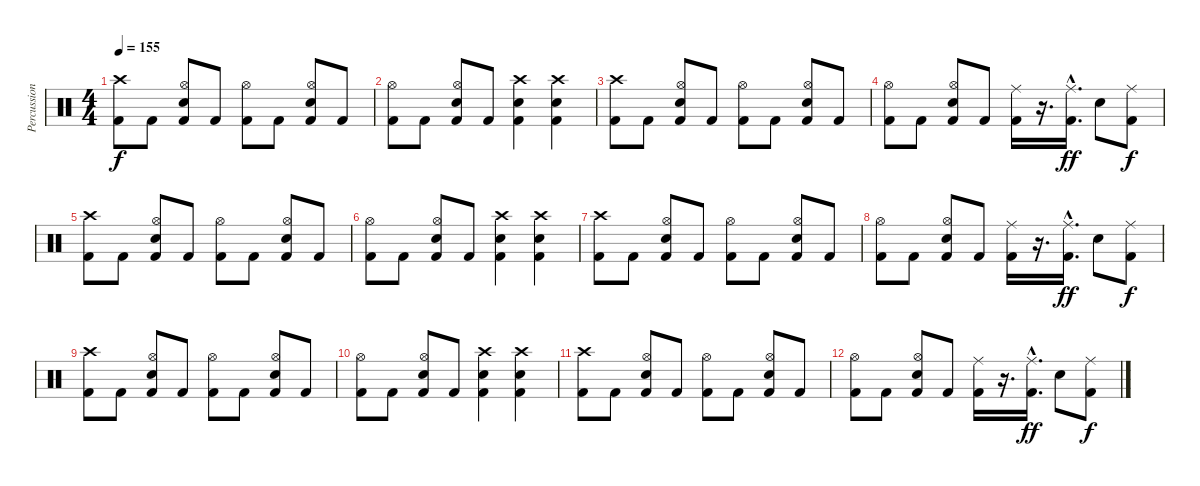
\track ("Percussion" "Percussion") {instrument percussion}
\staff {score}
\articulation defaults
\ts (4 4)
\tempo 155
\clef neutral
\ks c
("Crash high (hit)" "Kick (hit) 2").8{dy f} "Kick (hit) 2".8 ("Hi-Hat (open)" "Snare (hit) 2" "Kick (hit) 2").8 "Kick (hit) 2".8 ("Hi-Hat (open)" "Kick (hit) 2").8 "Kick (hit) 2".8 ("Hi-Hat (open)" "Snare (hit) 2" "Kick (hit) 2").8 "Kick (hit) 2".8 |
("Hi-Hat (open)" "Kick (hit) 2").8 "Kick (hit) 2".8 ("Hi-Hat (open)" "Snare (hit) 2" "Kick (hit) 2").8 "Kick (hit) 2".8 ("Crash high (hit)" "Snare (hit) 2" "Kick (hit) 2").4 ("Crash high (hit)" "Snare (hit) 2" "Kick (hit) 2").4 |
("Crash high (hit)" "Kick (hit) 2").8 "Kick (hit) 2".8 ("Hi-Hat (open)" "Snare (hit) 2" "Kick (hit) 2").8 "Kick (hit) 2".8 ("Hi-Hat (open)" "Kick (hit) 2").8 "Kick (hit) 2".8 ("Hi-Hat (open)" "Snare (hit) 2" "Kick (hit) 2").8 "Kick (hit) 2".8 |
("Hi-Hat (open)" "Kick (hit) 2").8 "Kick (hit) 2".8 ("Hi-Hat (open)" "Snare (hit) 2" "Kick (hit) 2").8 "Kick (hit) 2".8 ("Ride (middle)" "Kick (hit) 2").16 r.16{d} ("Ride (middle)"{hac} "Kick (hit) 2"{hac}).16{d dy ff} "Snare (hit) 2".8 ("Ride (middle)" "Kick (hit) 2").8{dy f} |
("Crash high (hit)" "Kick (hit) 2").8 "Kick (hit) 2".8 ("Hi-Hat (open)" "Snare (hit) 2" "Kick (hit) 2").8 "Kick (hit) 2".8 ("Hi-Hat (open)" "Kick (hit) 2").8 "Kick (hit) 2".8 ("Hi-Hat (open)" "Snare (hit) 2" "Kick (hit) 2").8 "Kick (hit) 2".8 |
("Hi-Hat (open)" "Kick (hit) 2").8 "Kick (hit) 2".8 ("Hi-Hat (open)" "Snare (hit) 2" "Kick (hit) 2").8 "Kick (hit) 2".8 ("Crash high (hit)" "Snare (hit) 2" "Kick (hit) 2").4 ("Crash high (hit)" "Snare (hit) 2" "Kick (hit) 2").4 |
("Crash high (hit)" "Kick (hit) 2").8 "Kick (hit) 2".8 ("Hi-Hat (open)" "Snare (hit) 2" "Kick (hit) 2").8 "Kick (hit) 2".8 ("Hi-Hat (open)" "Kick (hit) 2").8 "Kick (hit) 2".8 ("Hi-Hat (open)" "Snare (hit) 2" "Kick (hit) 2").8 "Kick (hit) 2".8 |
("Hi-Hat (open)" "Kick (hit) 2").8 "Kick (hit) 2".8 ("Hi-Hat (open)" "Snare (hit) 2" "Kick (hit) 2").8 "Kick (hit) 2".8 ("Ride (middle)" "Kick (hit) 2").16 r.16{d} ("Ride (middle)"{hac} "Kick (hit) 2"{hac}).16{d dy ff} "Snare (hit) 2".8 ("Ride (middle)" "Kick (hit) 2").8{dy f} |
("Crash high (hit)" "Kick (hit) 2").8 "Kick (hit) 2".8 ("Hi-Hat (open)" "Snare (hit) 2" "Kick (hit) 2").8 "Kick (hit) 2".8 ("Hi-Hat (open)" "Kick (hit) 2").8 "Kick (hit) 2".8 ("Hi-Hat (open)" "Snare (hit) 2" "Kick (hit) 2").8 "Kick (hit) 2".8 |
("Hi-Hat (open)" "Kick (hit) 2").8 "Kick (hit) 2".8 ("Hi-Hat (open)" "Snare (hit) 2" "Kick (hit) 2").8 "Kick (hit) 2".8 ("Crash high (hit)" "Snare (hit) 2" "Kick (hit) 2").4 ("Crash high (hit)" "Snare (hit) 2" "Kick (hit) 2").4 |
("Crash high (hit)" "Kick (hit) 2").8 "Kick (hit) 2".8 ("Hi-Hat (open)" "Snare (hit) 2" "Kick (hit) 2").8 "Kick (hit) 2".8 ("Hi-Hat (open)" "Kick (hit) 2").8 "Kick (hit) 2".8 ("Hi-Hat (open)" "Snare (hit) 2" "Kick (hit) 2").8 "Kick (hit) 2".8 |
("Hi-Hat (open)" "Kick (hit) 2").8 "Kick (hit) 2".8 ("Hi-Hat (open)" "Snare (hit) 2" "Kick (hit) 2").8 "Kick (hit) 2".8 ("Ride (middle)" "Kick (hit) 2").16 r.16{d} ("Ride (middle)"{hac} "Kick (hit) 2"{hac}).16{d dy ff} "Snare (hit) 2".8 ("Ride (middle)" "Kick (hit) 2").8{dy f}
